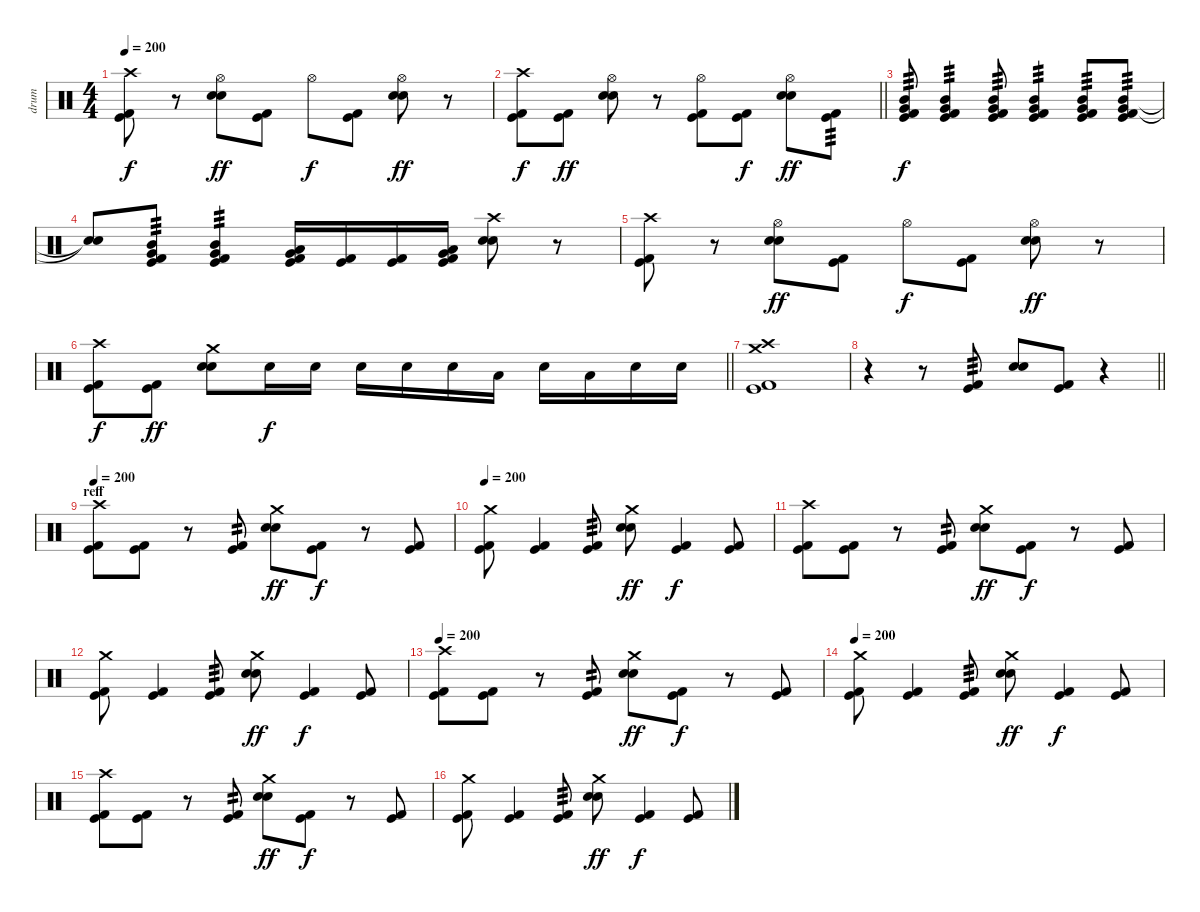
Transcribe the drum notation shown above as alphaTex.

\track ("drum" "drum") {instrument percussion}
\staff {score}
\articulation defaults
\ts (4 4)
\tempo 200
\clef neutral
\ks c
("Crash high (hit)" "Kick (hit)" "Kick (hit) 2").8{dy f} r.8 ("Hi-Hat (open)" "Electric Snare (hit)" "Electric Snare (hit)").8{dy ff} ("Kick (hit)" "Kick (hit) 2").8 "Hi-Hat (open)".8{dy f} ("Kick (hit)" "Kick (hit) 2").8 ("Hi-Hat (open)" "Electric Snare (hit)" "Electric Snare (hit)").8{dy ff} r.8 |
\barLineRight lightlight
("Crash high (hit)" "Kick (hit)" "Kick (hit) 2").8{dy f} ("Kick (hit)" "Kick (hit) 2").8{dy ff} ("Hi-Hat (open)" "Electric Snare (hit)" "Electric Snare (hit)").8 r.8 ("Hi-Hat (open)" "Kick (hit)" "Kick (hit) 2").8 ("Kick (hit)" "Kick (hit) 2").8{dy f} ("Hi-Hat (open)" "Electric Snare (hit)" "Electric Snare (hit)").8{dy ff} ("Kick (hit)" "Kick (hit) 2").8{tp 3} |
("Mid Tom (hit)" "Very Low Tom (hit)" "Kick (hit)" "Kick (hit) 2").8{tp 3 dy f} ("Mid Tom (hit)" "Very Low Tom (hit)" "Kick (hit)" "Kick (hit) 2").4{tp 3} ("Mid Tom (hit)" "Very Low Tom (hit)" "Kick (hit)" "Kick (hit) 2").8{tp 3} ("Mid Tom (hit)" "Very Low Tom (hit)" "Kick (hit)" "Kick (hit) 2").4{tp 3} ("Mid Tom (hit)" "Very Low Tom (hit)" "Kick (hit)" "Kick (hit) 2").8{tp 3} ("Mid Tom (hit)" "Very Low Tom (hit)" "Kick (hit)" "Kick (hit) 2").8{tp 3} |
("Snare (hit)"{t} "Snare (hit)"{t}).8 ("Mid Tom (hit)" "Very Low Tom (hit)" "Kick (hit)" "Kick (hit) 2").8{tp 3} ("Mid Tom (hit)" "Very Low Tom (hit)" "Kick (hit)" "Kick (hit) 2").4{tp 3} ("Low Tom (hit)" "Very Low Tom (hit)" "Kick (hit)" "Kick (hit) 2").16 ("Kick (hit)" "Kick (hit) 2").16 ("Kick (hit)" "Kick (hit) 2").16 ("Low Tom (hit)" "Very Low Tom (hit)" "Kick (hit)" "Kick (hit) 2").16 ("Crash high (hit)" "Electric Snare (hit)" "Electric Snare (hit)").8 r.8 |
("Crash high (hit)" "Kick (hit)" "Kick (hit) 2").8 r.8 ("Hi-Hat (open)" "Electric Snare (hit)" "Electric Snare (hit)").8{dy ff} ("Kick (hit)" "Kick (hit) 2").8 "Hi-Hat (open)".8{dy f} ("Kick (hit)" "Kick (hit) 2").8 ("Hi-Hat (open)" "Electric Snare (hit)" "Electric Snare (hit)").8{dy ff} r.8 |
\barLineRight lightlight
("Crash high (hit)" "Kick (hit)" "Kick (hit) 2").8{dy f} ("Kick (hit)" "Kick (hit) 2").8{dy ff} ("Crash medium (hit)" "Electric Snare (hit)" "Electric Snare (hit)").8 "Electric Snare (hit)".16{dy f} "Electric Snare (hit)".16 "Electric Snare (hit)".16 "Electric Snare (hit)".16 "Electric Snare (hit)".16 "Low Tom (hit)".16 "Electric Snare (hit)".16 "Low Tom (hit)".16 "Electric Snare (hit)".16 "Electric Snare (hit)".16 |
\section ("" "")
("Crash medium (hit)" "Crash high (hit)" "Kick (hit)" "Kick (hit) 2").1 |
\barLineRight lightlight
r.4 r.8 ("Kick (hit)" "Kick (hit) 2").8{tp 3} ("Electric Snare (hit)" "Electric Snare (hit)").8 ("Kick (hit)" "Kick (hit) 2").8 r.4 |
\section ("" "reff")
\tempo 200
("Crash high (hit)" "Kick (hit)" "Kick (hit) 2").8 ("Kick (hit)" "Kick (hit) 2").8 r.8 ("Kick (hit)" "Kick (hit) 2").8{tp 2} ("Crash medium (hit)" "Electric Snare (hit)" "Electric Snare (hit)").8{dy ff} ("Kick (hit)" "Kick (hit) 2").8{dy f} r.8 ("Kick (hit)" "Kick (hit) 2").8 |
\tempo 200
("Crash medium (hit)" "Kick (hit)" "Kick (hit) 2").8 ("Kick (hit)" "Kick (hit) 2").4 ("Kick (hit)" "Kick (hit) 2").8{tp 3} ("Crash medium (hit)" "Electric Snare (hit)" "Electric Snare (hit)").8{dy ff} ("Kick (hit)" "Kick (hit) 2").4{dy f} ("Kick (hit)" "Kick (hit) 2").8 |
("Crash high (hit)" "Kick (hit)" "Kick (hit) 2").8 ("Kick (hit)" "Kick (hit) 2").8 r.8 ("Kick (hit)" "Kick (hit) 2").8{tp 2} ("Crash medium (hit)" "Electric Snare (hit)" "Electric Snare (hit)").8{dy ff} ("Kick (hit)" "Kick (hit) 2").8{dy f} r.8 ("Kick (hit)" "Kick (hit) 2").8 |
("Crash medium (hit)" "Kick (hit)" "Kick (hit) 2").8 ("Kick (hit)" "Kick (hit) 2").4 ("Kick (hit)" "Kick (hit) 2").8{tp 3} ("Crash medium (hit)" "Electric Snare (hit)" "Electric Snare (hit)").8{dy ff} ("Kick (hit)" "Kick (hit) 2").4{dy f} ("Kick (hit)" "Kick (hit) 2").8 |
\tempo 200
("Crash high (hit)" "Kick (hit)" "Kick (hit) 2").8 ("Kick (hit)" "Kick (hit) 2").8 r.8 ("Kick (hit)" "Kick (hit) 2").8{tp 2} ("Crash medium (hit)" "Electric Snare (hit)" "Electric Snare (hit)").8{dy ff} ("Kick (hit)" "Kick (hit) 2").8{dy f} r.8 ("Kick (hit)" "Kick (hit) 2").8 |
\tempo 200
("Crash medium (hit)" "Kick (hit)" "Kick (hit) 2").8 ("Kick (hit)" "Kick (hit) 2").4 ("Kick (hit)" "Kick (hit) 2").8{tp 3} ("Crash medium (hit)" "Electric Snare (hit)" "Electric Snare (hit)").8{dy ff} ("Kick (hit)" "Kick (hit) 2").4{dy f} ("Kick (hit)" "Kick (hit) 2").8 |
("Crash high (hit)" "Kick (hit)" "Kick (hit) 2").8 ("Kick (hit)" "Kick (hit) 2").8 r.8 ("Kick (hit)" "Kick (hit) 2").8{tp 2} ("Crash medium (hit)" "Electric Snare (hit)" "Electric Snare (hit)").8{dy ff} ("Kick (hit)" "Kick (hit) 2").8{dy f} r.8 ("Kick (hit)" "Kick (hit) 2").8 |
("Crash medium (hit)" "Kick (hit)" "Kick (hit) 2").8 ("Kick (hit)" "Kick (hit) 2").4 ("Kick (hit)" "Kick (hit) 2").8{tp 3} ("Crash medium (hit)" "Electric Snare (hit)" "Electric Snare (hit)").8{dy ff} ("Kick (hit)" "Kick (hit) 2").4{dy f} ("Kick (hit)" "Kick (hit) 2").8
